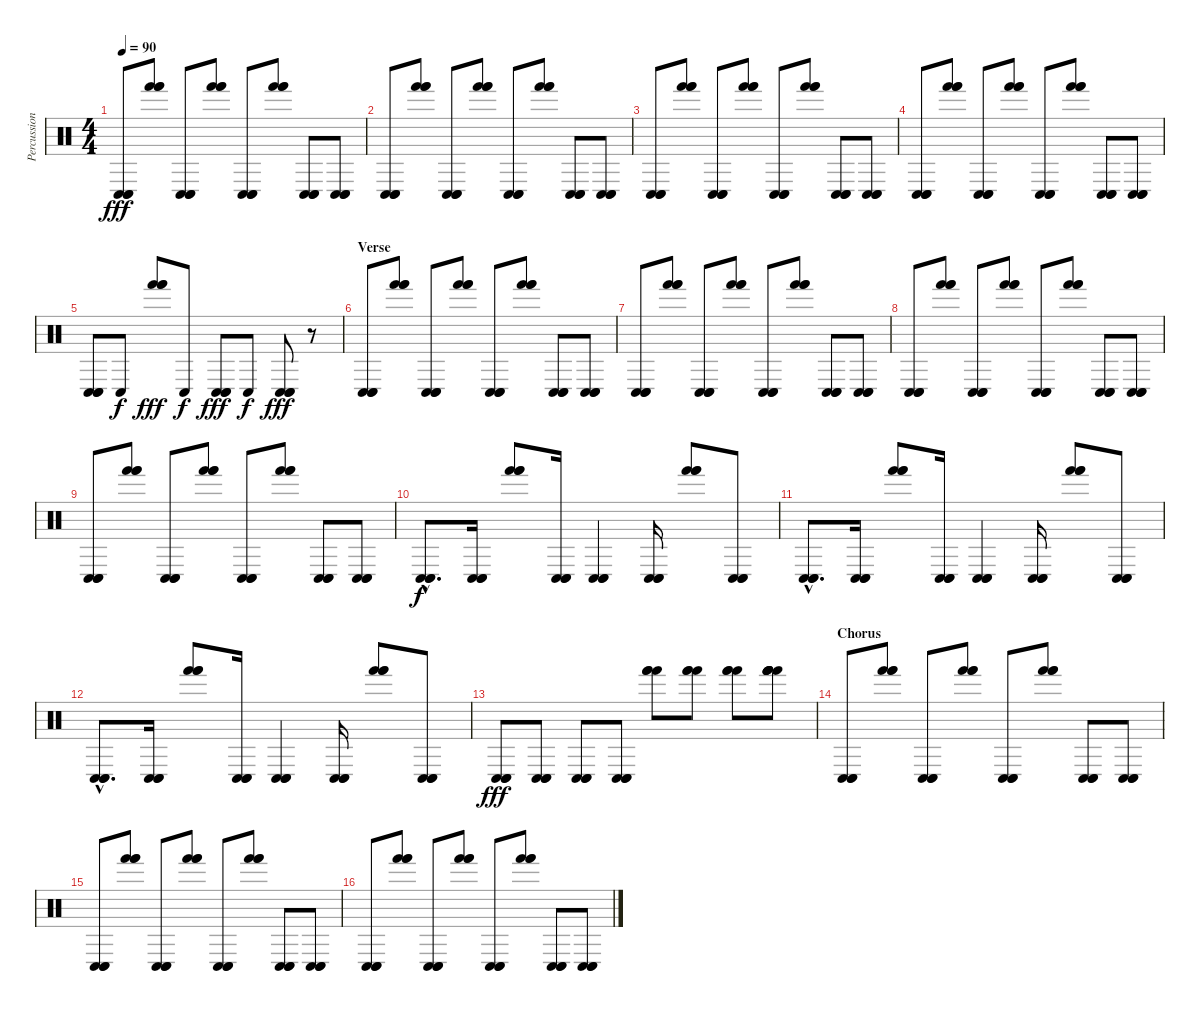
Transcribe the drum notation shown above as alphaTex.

\track ("Percussion" "Percussion") {instrument percussion}
\staff {score}
\articulation defaults
\ts (4 4)
\tempo 90
\clef neutral
\ks c
("Conga low (hit)" "Conga low (hit)" "Conga low (hit)").8{dy fff} ("Hand (hit)" "Hand (hit)" "Hand (hit)").8 ("Conga low (hit)" "Conga low (hit)" "Conga low (hit)").8 ("Hand (hit)" "Hand (hit)" "Hand (hit)").8 ("Conga low (hit)" "Conga low (hit)" "Conga low (hit)").8 ("Hand (hit)" "Hand (hit)" "Hand (hit)").8 ("Conga low (hit)" "Conga low (hit)" "Conga low (hit)").8 ("Conga low (hit)" "Conga low (hit)" "Conga low (hit)").8 |
("Conga low (hit)" "Conga low (hit)" "Conga low (hit)").8 ("Hand (hit)" "Hand (hit)" "Hand (hit)").8 ("Conga low (hit)" "Conga low (hit)" "Conga low (hit)").8 ("Hand (hit)" "Hand (hit)" "Hand (hit)").8 ("Conga low (hit)" "Conga low (hit)" "Conga low (hit)").8 ("Hand (hit)" "Hand (hit)" "Hand (hit)").8 ("Conga low (hit)" "Conga low (hit)" "Conga low (hit)").8 ("Conga low (hit)" "Conga low (hit)" "Conga low (hit)").8 |
("Conga low (hit)" "Conga low (hit)" "Conga low (hit)").8 ("Hand (hit)" "Hand (hit)" "Hand (hit)").8 ("Conga low (hit)" "Conga low (hit)" "Conga low (hit)").8 ("Hand (hit)" "Hand (hit)" "Hand (hit)").8 ("Conga low (hit)" "Conga low (hit)" "Conga low (hit)").8 ("Hand (hit)" "Hand (hit)" "Hand (hit)").8 ("Conga low (hit)" "Conga low (hit)" "Conga low (hit)").8 ("Conga low (hit)" "Conga low (hit)" "Conga low (hit)").8 |
("Conga low (hit)" "Conga low (hit)" "Conga low (hit)").8 ("Hand (hit)" "Hand (hit)" "Hand (hit)").8 ("Conga low (hit)" "Conga low (hit)" "Conga low (hit)").8 ("Hand (hit)" "Hand (hit)" "Hand (hit)").8 ("Conga low (hit)" "Conga low (hit)" "Conga low (hit)").8 ("Hand (hit)" "Hand (hit)" "Hand (hit)").8 ("Conga low (hit)" "Conga low (hit)" "Conga low (hit)").8 ("Conga low (hit)" "Conga low (hit)" "Conga low (hit)").8 |
("Conga low (hit)" "Conga low (hit)" "Conga low (hit)").8 "Conga low (hit)".8{dy f} ("Hand (hit)" "Hand (hit)" "Hand (hit)").8{dy fff} "Conga low (hit)".8{dy f} ("Conga low (hit)" "Conga low (hit)" "Conga low (hit)").8{dy fff} "Conga low (hit)".8{dy f} ("Conga low (hit)" "Conga low (hit)" "Conga low (hit)").8{dy fff} r.8 |
\section ("" "Verse")
("Conga low (hit)" "Conga low (hit)" "Conga low (hit)").8 ("Hand (hit)" "Hand (hit)" "Hand (hit)").8 ("Conga low (hit)" "Conga low (hit)" "Conga low (hit)").8 ("Hand (hit)" "Hand (hit)" "Hand (hit)").8 ("Conga low (hit)" "Conga low (hit)" "Conga low (hit)").8 ("Hand (hit)" "Hand (hit)" "Hand (hit)").8 ("Conga low (hit)" "Conga low (hit)" "Conga low (hit)").8 ("Conga low (hit)" "Conga low (hit)" "Conga low (hit)").8 |
("Conga low (hit)" "Conga low (hit)" "Conga low (hit)").8 ("Hand (hit)" "Hand (hit)" "Hand (hit)").8 ("Conga low (hit)" "Conga low (hit)" "Conga low (hit)").8 ("Hand (hit)" "Hand (hit)" "Hand (hit)").8 ("Conga low (hit)" "Conga low (hit)" "Conga low (hit)").8 ("Hand (hit)" "Hand (hit)" "Hand (hit)").8 ("Conga low (hit)" "Conga low (hit)" "Conga low (hit)").8 ("Conga low (hit)" "Conga low (hit)" "Conga low (hit)").8 |
("Conga low (hit)" "Conga low (hit)" "Conga low (hit)").8 ("Hand (hit)" "Hand (hit)" "Hand (hit)").8 ("Conga low (hit)" "Conga low (hit)" "Conga low (hit)").8 ("Hand (hit)" "Hand (hit)" "Hand (hit)").8 ("Conga low (hit)" "Conga low (hit)" "Conga low (hit)").8 ("Hand (hit)" "Hand (hit)" "Hand (hit)").8 ("Conga low (hit)" "Conga low (hit)" "Conga low (hit)").8 ("Conga low (hit)" "Conga low (hit)" "Conga low (hit)").8 |
("Conga low (hit)" "Conga low (hit)" "Conga low (hit)").8 ("Hand (hit)" "Hand (hit)" "Hand (hit)").8 ("Conga low (hit)" "Conga low (hit)" "Conga low (hit)").8 ("Hand (hit)" "Hand (hit)" "Hand (hit)").8 ("Conga low (hit)" "Conga low (hit)" "Conga low (hit)").8 ("Hand (hit)" "Hand (hit)" "Hand (hit)").8 ("Conga low (hit)" "Conga low (hit)" "Conga low (hit)").8 ("Conga low (hit)" "Conga low (hit)" "Conga low (hit)").8 |
("Conga low (hit)"{hac} "Conga low (hit)"{hac} "Conga low (hit)"{hac}).8{d dy f} ("Conga low (hit)" "Conga low (hit)" "Conga low (hit)").16 ("Hand (hit)" "Hand (hit)" "Hand (hit)").8 ("Conga low (hit)" "Conga low (hit)" "Conga low (hit)").16 ("Conga low (hit)" "Conga low (hit)" "Conga low (hit)").4 ("Conga low (hit)" "Conga low (hit)" "Conga low (hit)").16 ("Hand (hit)" "Hand (hit)" "Hand (hit)").8 ("Conga low (hit)" "Conga low (hit)" "Conga low (hit)").8 |
("Conga low (hit)"{hac} "Conga low (hit)"{hac} "Conga low (hit)"{hac}).8{d} ("Conga low (hit)" "Conga low (hit)" "Conga low (hit)").16 ("Hand (hit)" "Hand (hit)" "Hand (hit)").8 ("Conga low (hit)" "Conga low (hit)" "Conga low (hit)").16 ("Conga low (hit)" "Conga low (hit)" "Conga low (hit)").4 ("Conga low (hit)" "Conga low (hit)" "Conga low (hit)").16 ("Hand (hit)" "Hand (hit)" "Hand (hit)").8 ("Conga low (hit)" "Conga low (hit)" "Conga low (hit)").8 |
("Conga low (hit)"{hac} "Conga low (hit)"{hac} "Conga low (hit)"{hac}).8{d} ("Conga low (hit)" "Conga low (hit)" "Conga low (hit)").16 ("Hand (hit)" "Hand (hit)" "Hand (hit)").8 ("Conga low (hit)" "Conga low (hit)" "Conga low (hit)").16 ("Conga low (hit)" "Conga low (hit)" "Conga low (hit)").4 ("Conga low (hit)" "Conga low (hit)" "Conga low (hit)").16 ("Hand (hit)" "Hand (hit)" "Hand (hit)").8 ("Conga low (hit)" "Conga low (hit)" "Conga low (hit)").8 |
("Conga low (hit)" "Conga low (hit)" "Conga low (hit)").8{dy fff} ("Conga low (hit)" "Conga low (hit)" "Conga low (hit)").8 ("Conga low (hit)" "Conga low (hit)" "Conga low (hit)").8 ("Conga low (hit)" "Conga low (hit)" "Conga low (hit)").8 ("Hand (hit)" "Hand (hit)" "Hand (hit)").8 ("Hand (hit)" "Hand (hit)" "Hand (hit)").8 ("Hand (hit)" "Hand (hit)" "Hand (hit)").8 ("Hand (hit)" "Hand (hit)" "Hand (hit)" "Hand (hit)" "Hand (hit)").8 |
\section ("" "Chorus")
("Conga low (hit)" "Conga low (hit)" "Conga low (hit)").8 ("Hand (hit)" "Hand (hit)" "Hand (hit)").8 ("Conga low (hit)" "Conga low (hit)" "Conga low (hit)").8 ("Hand (hit)" "Hand (hit)" "Hand (hit)").8 ("Conga low (hit)" "Conga low (hit)" "Conga low (hit)").8 ("Hand (hit)" "Hand (hit)" "Hand (hit)").8 ("Conga low (hit)" "Conga low (hit)" "Conga low (hit)").8 ("Conga low (hit)" "Conga low (hit)" "Conga low (hit)").8 |
("Conga low (hit)" "Conga low (hit)" "Conga low (hit)").8 ("Hand (hit)" "Hand (hit)" "Hand (hit)").8 ("Conga low (hit)" "Conga low (hit)" "Conga low (hit)").8 ("Hand (hit)" "Hand (hit)" "Hand (hit)").8 ("Conga low (hit)" "Conga low (hit)" "Conga low (hit)").8 ("Hand (hit)" "Hand (hit)" "Hand (hit)").8 ("Conga low (hit)" "Conga low (hit)" "Conga low (hit)").8 ("Conga low (hit)" "Conga low (hit)" "Conga low (hit)").8 |
("Conga low (hit)" "Conga low (hit)" "Conga low (hit)").8 ("Hand (hit)" "Hand (hit)" "Hand (hit)").8 ("Conga low (hit)" "Conga low (hit)" "Conga low (hit)").8 ("Hand (hit)" "Hand (hit)" "Hand (hit)").8 ("Conga low (hit)" "Conga low (hit)" "Conga low (hit)").8 ("Hand (hit)" "Hand (hit)" "Hand (hit)").8 ("Conga low (hit)" "Conga low (hit)" "Conga low (hit)").8 ("Conga low (hit)" "Conga low (hit)" "Conga low (hit)").8
